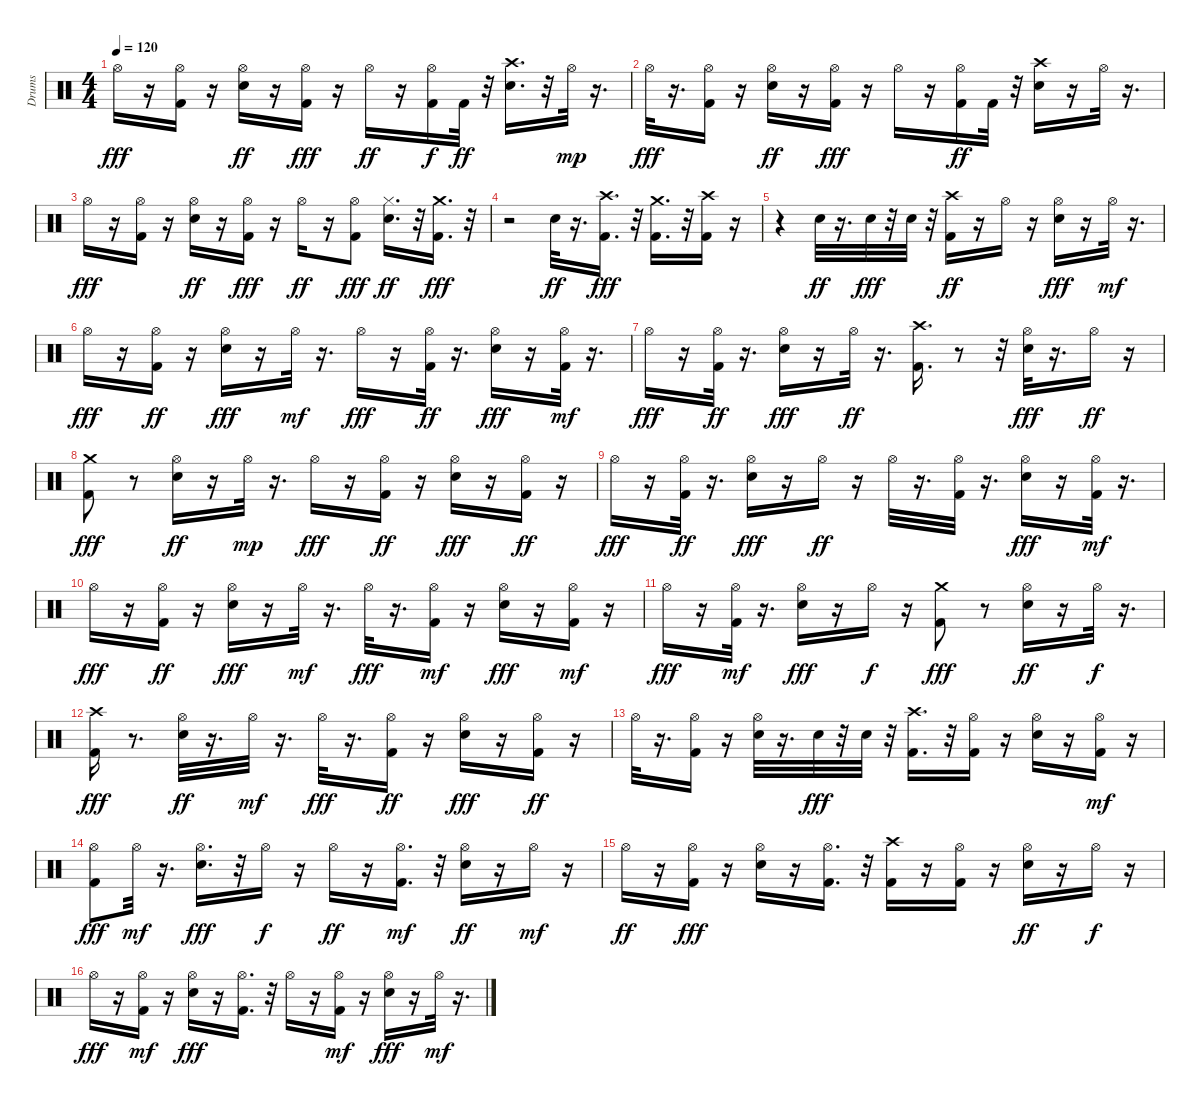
\track ("Drums" "Drums") {instrument percussion}
\staff {score}
\articulation defaults
\ts (4 4)
\tempo 120
\clef neutral
\ks c "Hi-Hat (open)".16{dy fff}
r.16 ("Hi-Hat (open)" "Kick (hit) 2").16 r.16 ("Hi-Hat (open)" "Electric Snare (hit)").16{dy ff} r.16 ("Hi-Hat (open)" "Kick (hit) 2").16{dy fff} r.16 "Hi-Hat (open)".16{dy ff} r.16 ("Hi-Hat (open)" "Kick (hit) 2").16{dy f} "Kick (hit) 2".32{dy ff} r.32 ("Crash high (hit)" "Electric Snare (hit)").16{d} r.32 "Hi-Hat (open)".32{dy mp} r.16{d} |
"Hi-Hat (open)".32{dy fff} r.16{d} ("Hi-Hat (open)" "Kick (hit) 2").16 r.16 ("Hi-Hat (open)" "Electric Snare (hit)").16{dy ff} r.16 ("Hi-Hat (open)" "Kick (hit) 2").16{dy fff} r.16 "Hi-Hat (open)".16 r.16 ("Hi-Hat (open)" "Kick (hit) 2").16{dy ff} "Kick (hit) 2".32 r.32 ("Crash high (hit)" "Electric Snare (hit)").16 r.16 "Hi-Hat (open)".32 r.16{d} |
"Hi-Hat (open)".16{dy fff} r.16 ("Hi-Hat (open)" "Kick (hit) 2").16 r.16 ("Hi-Hat (open)" "Electric Snare (hit)").16{dy ff} r.16 ("Hi-Hat (open)" "Kick (hit) 2").16{dy fff} r.16 "Hi-Hat (open)".16{dy ff} r.16 ("Hi-Hat (open)" "Kick (hit) 2").8{dy fff} ("Hi-Hat (closed)" "Electric Snare (hit)").16{d dy ff} r.32 ("Crash medium (hit)" "Kick (hit) 2").16{d dy fff} r.32 |
r.2 "Electric Snare (hit)".32{dy ff} r.16{d} ("Crash high (hit)" "Kick (hit) 2").16{d dy fff} r.32 ("Crash medium (hit)" "Kick (hit) 2").16{d} r.32 ("Crash high (hit)" "Kick (hit) 2").16 r.16 |
r.4 "Electric Snare (hit)".32{dy ff} r.16{d} "Electric Snare (hit)".32{dy fff} r.32 "Electric Snare (hit)".32 r.32 ("Kick (hit) 2" "Crash high (hit)").16{dy ff} r.16 "Hi-Hat (open)".16 r.16 ("Electric Snare (hit)" "Hi-Hat (open)").16{dy fff} r.16 "Hi-Hat (open)".32{dy mf} r.16{d} |
"Hi-Hat (open)".16{dy fff} r.16 ("Kick (hit) 2" "Hi-Hat (open)").16{dy ff} r.16 ("Electric Snare (hit)" "Hi-Hat (open)").16{dy fff} r.16 "Hi-Hat (open)".32{dy mf} r.16{d} "Hi-Hat (open)".16{dy fff} r.16 ("Kick (hit) 2" "Hi-Hat (open)").32{dy ff} r.16{d} ("Electric Snare (hit)" "Hi-Hat (open)").16{dy fff} r.16 ("Kick (hit) 2" "Hi-Hat (open)").32{dy mf} r.16{d} |
"Hi-Hat (open)".16{dy fff} r.16 ("Kick (hit) 2" "Hi-Hat (open)").32{dy ff} r.16{d} ("Electric Snare (hit)" "Hi-Hat (open)").16{dy fff} r.16 "Hi-Hat (open)".32{dy ff} r.16{d} ("Kick (hit) 2" "Crash high (hit)").16{d} r.8 r.32 ("Electric Snare (hit)" "Hi-Hat (open)").32{dy fff} r.16{d} "Hi-Hat (open)".16{dy ff} r.16 |
("Kick (hit) 2" "Crash medium (hit)").8{dy fff} r.8 ("Electric Snare (hit)" "Hi-Hat (open)").16{dy ff} r.16 "Hi-Hat (open)".32{dy mp} r.16{d} "Hi-Hat (open)".16{dy fff} r.16 ("Kick (hit) 2" "Hi-Hat (open)").16{dy ff} r.16 ("Electric Snare (hit)" "Hi-Hat (open)").16{dy fff} r.16 ("Kick (hit) 2" "Hi-Hat (open)").16{dy ff} r.16 |
"Hi-Hat (open)".16{dy fff} r.16 ("Kick (hit) 2" "Hi-Hat (open)").32{dy ff} r.16{d} ("Electric Snare (hit)" "Hi-Hat (open)").16{dy fff} r.16 "Hi-Hat (open)".16{dy ff} r.16 "Hi-Hat (open)".32 r.16{d} ("Kick (hit) 2" "Hi-Hat (open)").32 r.16{d} ("Electric Snare (hit)" "Hi-Hat (open)").16{dy fff} r.16 ("Kick (hit) 2" "Hi-Hat (open)").32{dy mf} r.16{d} |
"Hi-Hat (open)".16{dy fff} r.16 ("Kick (hit) 2" "Hi-Hat (open)").16{dy ff} r.16 ("Electric Snare (hit)" "Hi-Hat (open)").16{dy fff} r.16 "Hi-Hat (open)".32{dy mf} r.16{d} "Hi-Hat (open)".32{dy fff} r.16{d} ("Kick (hit) 2" "Hi-Hat (open)").16{dy mf} r.16 ("Electric Snare (hit)" "Hi-Hat (open)").16{dy fff} r.16 ("Kick (hit) 2" "Hi-Hat (open)").16{dy mf} r.16 |
"Hi-Hat (open)".16{dy fff} r.16 ("Kick (hit) 2" "Hi-Hat (open)").32{dy mf} r.16{d} ("Electric Snare (hit)" "Hi-Hat (open)").16{dy fff} r.16 "Hi-Hat (open)".16{dy f} r.16 ("Kick (hit) 2" "Crash medium (hit)").8{dy fff} r.8 ("Electric Snare (hit)" "Hi-Hat (open)").16{dy ff} r.16 "Hi-Hat (open)".32{dy f} r.16{d} |
("Kick (hit) 2" "Crash high (hit)").16{dy fff} r.8{d} ("Electric Snare (hit)" "Hi-Hat (open)").32{dy ff} r.16{d} "Hi-Hat (open)".32{dy mf} r.16{d} "Hi-Hat (open)".32{dy fff} r.16{d} ("Kick (hit) 2" "Hi-Hat (open)").16{dy ff} r.16 ("Electric Snare (hit)" "Hi-Hat (open)").16{dy fff} r.16 ("Kick (hit) 2" "Hi-Hat (open)").16{dy ff} r.16 |
"Hi-Hat (open)".32 r.16{d} ("Kick (hit) 2" "Hi-Hat (open)").16 r.16 ("Electric Snare (hit)" "Hi-Hat (open)").32 r.16{d} "Electric Snare (hit)".32{dy fff} r.32 "Electric Snare (hit)".32 r.32 ("Kick (hit) 2" "Crash high (hit)").16{d} r.32 ("Kick (hit) 2" "Hi-Hat (open)").16 r.16 ("Electric Snare (hit)" "Hi-Hat (open)").16 r.16 ("Kick (hit) 2" "Hi-Hat (open)").16{dy mf} r.16 |
("Kick (hit) 2" "Hi-Hat (open)").8{dy fff} "Hi-Hat (open)".32{dy mf} r.16{d} ("Electric Snare (hit)" "Hi-Hat (open)").16{d dy fff} r.32 "Hi-Hat (open)".16{dy f} r.16 "Hi-Hat (open)".16{dy ff} r.16 ("Kick (hit) 2" "Hi-Hat (open)").16{d dy mf} r.32 ("Electric Snare (hit)" "Hi-Hat (open)").16{dy ff} r.16 "Hi-Hat (open)".16{dy mf} r.16 |
"Hi-Hat (open)".16{dy ff} r.16 ("Kick (hit) 2" "Hi-Hat (open)").16{dy fff} r.16 ("Electric Snare (hit)" "Hi-Hat (open)").16 r.16 ("Kick (hit) 2" "Hi-Hat (open)").16{d} r.32 ("Kick (hit) 2" "Crash high (hit)").16 r.16 ("Kick (hit) 2" "Hi-Hat (open)").16 r.16 ("Electric Snare (hit)" "Hi-Hat (open)").16{dy ff} r.16 "Hi-Hat (open)".16{dy f} r.16 |
"Hi-Hat (open)".16{dy fff} r.16 ("Kick (hit) 2" "Hi-Hat (open)").16{dy mf} r.16 ("Electric Snare (hit)" "Hi-Hat (open)").16{dy fff} r.16 ("Kick (hit) 2" "Hi-Hat (open)").16{d} r.32 "Hi-Hat (open)".16 r.16 ("Kick (hit) 2" "Hi-Hat (open)").16{dy mf} r.16 ("Electric Snare (hit)" "Hi-Hat (open)").16{dy fff} r.16 "Hi-Hat (open)".32{dy mf} r.16{d}
